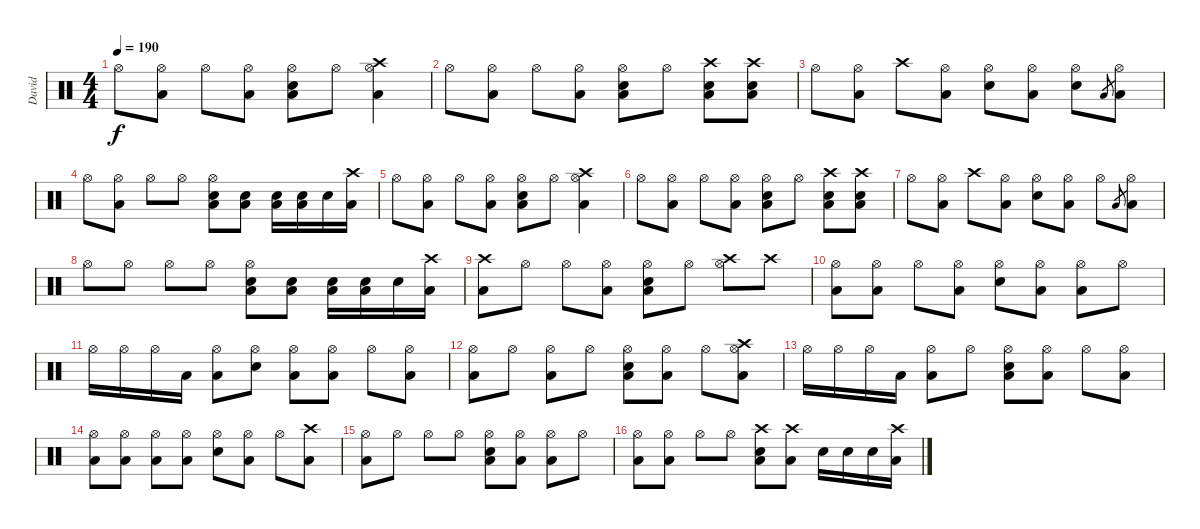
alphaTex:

\track ("David" "David") {instrument percussion}
\staff {score}
\articulation defaults
\ts (4 4)
\tempo 190
\clef neutral
\ks c "Hi-Hat (open)".8{dy f}
("Hi-Hat (open)" "Low Tom (hit)").8 "Hi-Hat (open)".8 ("Hi-Hat (open)" "Low Tom (hit)").8 ("Hi-Hat (open)" "Electric Snare (hit)" "Low Tom (hit)").8 "Hi-Hat (open)".8 ("Crash high (hit)" "Hi-Hat (open)" "Low Tom (hit)").4 |
"Hi-Hat (open)".8 ("Hi-Hat (open)" "Low Tom (hit)").8 "Hi-Hat (open)".8 ("Hi-Hat (open)" "Low Tom (hit)").8 ("Hi-Hat (open)" "Electric Snare (hit)" "Low Tom (hit)").8 "Hi-Hat (open)".8 ("Crash high (hit)" "Electric Snare (hit)" "Low Tom (hit)").8 ("Crash high (hit)" "Electric Snare (hit)" "Low Tom (hit)").8 |
"Hi-Hat (open)".8 ("Hi-Hat (open)" "Low Tom (hit)").8 "Crash high (hit)".8 ("Hi-Hat (open)" "Low Tom (hit)").8 ("Hi-Hat (open)" "Electric Snare (hit)").8 ("Hi-Hat (open)" "Low Tom (hit)").8 ("Hi-Hat (open)" "Electric Snare (hit)").8 "Low Tom (hit)".8{gr} ("Hi-Hat (open)" "Low Tom (hit)").8 |
"Hi-Hat (open)".8 ("Hi-Hat (open)" "Low Tom (hit)").8 "Hi-Hat (open)".8 "Hi-Hat (open)".8 ("Hi-Hat (open)" "Electric Snare (hit)" "Low Tom (hit)").8 ("Electric Snare (hit)" "Low Tom (hit)").8 ("Electric Snare (hit)" "Low Tom (hit)").16 ("Electric Snare (hit)" "Low Tom (hit)").16 "Electric Snare (hit)".16 ("Crash high (hit)" "Low Tom (hit)").16 |
"Hi-Hat (open)".8 ("Hi-Hat (open)" "Low Tom (hit)").8 "Hi-Hat (open)".8 ("Hi-Hat (open)" "Low Tom (hit)").8 ("Hi-Hat (open)" "Electric Snare (hit)" "Low Tom (hit)").8 "Hi-Hat (open)".8 ("Crash high (hit)" "Hi-Hat (open)" "Low Tom (hit)").4 |
"Hi-Hat (open)".8 ("Hi-Hat (open)" "Low Tom (hit)").8 "Hi-Hat (open)".8 ("Hi-Hat (open)" "Low Tom (hit)").8 ("Hi-Hat (open)" "Electric Snare (hit)" "Low Tom (hit)").8 "Hi-Hat (open)".8 ("Crash high (hit)" "Electric Snare (hit)" "Low Tom (hit)").8 ("Crash high (hit)" "Electric Snare (hit)" "Low Tom (hit)").8 |
"Hi-Hat (open)".8 ("Hi-Hat (open)" "Low Tom (hit)").8 "Crash high (hit)".8 ("Hi-Hat (open)" "Low Tom (hit)").8 ("Hi-Hat (open)" "Electric Snare (hit)").8 ("Hi-Hat (open)" "Low Tom (hit)").8 "Hi-Hat (open)".8 "Low Tom (hit)".8{gr} ("Hi-Hat (open)" "Low Tom (hit)").8 |
"Hi-Hat (open)".8 "Hi-Hat (open)".8 "Hi-Hat (open)".8 "Hi-Hat (open)".8 ("Hi-Hat (open)" "Electric Snare (hit)" "Low Tom (hit)").8 ("Electric Snare (hit)" "Low Tom (hit)").8 ("Electric Snare (hit)" "Low Tom (hit)").16 ("Electric Snare (hit)" "Low Tom (hit)").16 "Electric Snare (hit)".16 ("Crash high (hit)" "Low Tom (hit)").16 |
("Crash high (hit)" "Low Tom (hit)").8 "Hi-Hat (open)".8 "Hi-Hat (open)".8 ("Hi-Hat (open)" "Low Tom (hit)").8 ("Hi-Hat (open)" "Electric Snare (hit)" "Low Tom (hit)").8 "Hi-Hat (open)".8 ("Crash high (hit)" "Hi-Hat (open)").8 "Crash high (hit)".8 |
("Hi-Hat (open)" "Low Tom (hit)").8 ("Hi-Hat (open)" "Low Tom (hit)").8 "Hi-Hat (open)".8 ("Hi-Hat (open)" "Low Tom (hit)").8 ("Hi-Hat (open)" "Electric Snare (hit)").8 ("Hi-Hat (open)" "Low Tom (hit)").8 ("Hi-Hat (open)" "Low Tom (hit)").8 "Hi-Hat (open)".8 |
"Hi-Hat (open)".16 "Hi-Hat (open)".16 "Hi-Hat (open)".16 "Low Tom (hit)".16 ("Hi-Hat (open)" "Low Tom (hit)").8 ("Hi-Hat (open)" "Electric Snare (hit)").8 ("Hi-Hat (open)" "Low Tom (hit)").8 ("Hi-Hat (open)" "Low Tom (hit)").8 "Hi-Hat (open)".8 ("Hi-Hat (open)" "Low Tom (hit)").8 |
("Hi-Hat (open)" "Low Tom (hit)").8 "Hi-Hat (open)".8 ("Hi-Hat (open)" "Low Tom (hit)").8 "Hi-Hat (open)".8 ("Hi-Hat (open)" "Electric Snare (hit)" "Low Tom (hit)").8 ("Hi-Hat (open)" "Low Tom (hit)").8 "Hi-Hat (open)".8 ("Crash high (hit)" "Hi-Hat (open)" "Low Tom (hit)").8 |
"Hi-Hat (open)".16 "Hi-Hat (open)".16 "Hi-Hat (open)".16 "Low Tom (hit)".16 ("Hi-Hat (open)" "Low Tom (hit)").8 "Hi-Hat (open)".8 ("Hi-Hat (open)" "Electric Snare (hit)" "Low Tom (hit)").8 ("Hi-Hat (open)" "Low Tom (hit)").8 "Hi-Hat (open)".8 ("Hi-Hat (open)" "Low Tom (hit)").8 |
("Hi-Hat (open)" "Low Tom (hit)").8 ("Hi-Hat (open)" "Low Tom (hit)").8 ("Hi-Hat (open)" "Low Tom (hit)").8 ("Hi-Hat (open)" "Low Tom (hit)").8 ("Hi-Hat (open)" "Electric Snare (hit)").8 ("Hi-Hat (open)" "Low Tom (hit)").8 "Hi-Hat (open)".8 ("Crash high (hit)" "Low Tom (hit)").8 |
("Hi-Hat (open)" "Low Tom (hit)").8 "Hi-Hat (open)".8 "Hi-Hat (open)".8 "Hi-Hat (open)".8 ("Hi-Hat (open)" "Electric Snare (hit)" "Low Tom (hit)").8 ("Hi-Hat (open)" "Low Tom (hit)").8 ("Hi-Hat (open)" "Low Tom (hit)").8 "Hi-Hat (open)".8 |
("Hi-Hat (open)" "Low Tom (hit)").8 ("Hi-Hat (open)" "Low Tom (hit)").8 "Hi-Hat (open)".8 "Hi-Hat (open)".8 ("Crash high (hit)" "Electric Snare (hit)" "Low Tom (hit)").8 ("Crash high (hit)" "Low Tom (hit)").8 "Electric Snare (hit)".16 "Electric Snare (hit)".16 "Electric Snare (hit)".16 ("Crash high (hit)" "Low Tom (hit)").16
